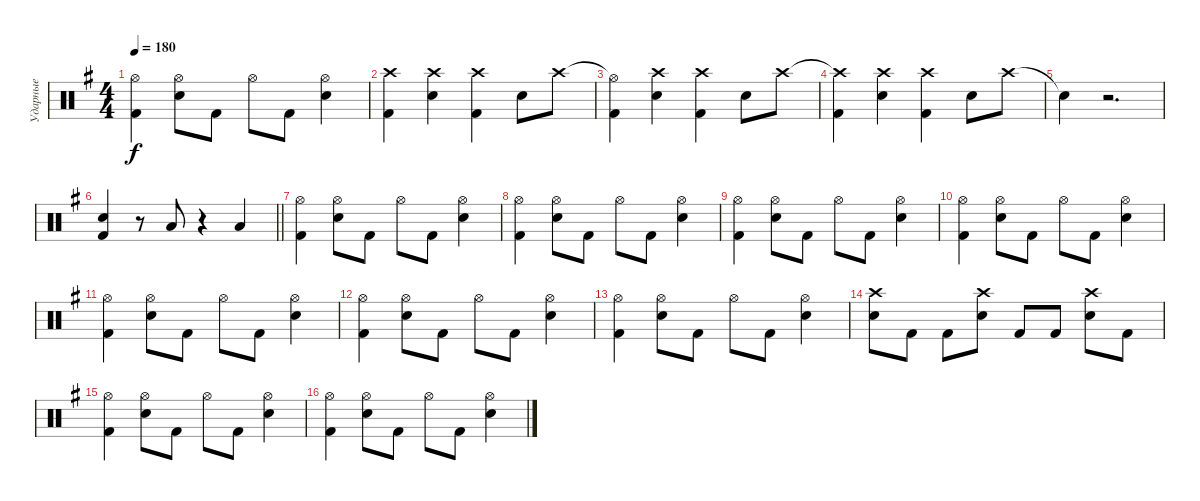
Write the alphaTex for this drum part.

\track ("Ударные" "Ударные") {instrument percussion}
\staff {score}
\articulation defaults
\ts (4 4)
\tempo 180
\clef neutral
\ks g
("Hi-Hat (open)" "Kick (hit) 2").4{dy f} ("Hi-Hat (open)" "Snare (hit) 2").8 "Kick (hit) 2".8 "Hi-Hat (open)".8 "Kick (hit) 2".8 ("Hi-Hat (open)" "Snare (hit) 2").4 |
("Crash high (hit)" "Kick (hit) 2").4 ("Crash high (hit)" "Snare (hit) 2").4 ("Crash high (hit)" "Kick (hit) 2").4 "Snare (hit) 2".8 "Crash high (hit)".8 |
("Hi-Hat (open)"{t} "Kick (hit) 2").4 ("Crash high (hit)" "Snare (hit) 2").4 ("Crash high (hit)" "Kick (hit) 2").4 "Snare (hit) 2".8 "Crash high (hit)".8 |
("Crash high (hit)"{t} "Kick (hit) 2").4 ("Crash high (hit)" "Snare (hit) 2").4 ("Crash high (hit)" "Kick (hit) 2").4 "Snare (hit) 2".8 "Crash high (hit)".8 |
"Snare (hit)"{t}.4 r.2{d} |
\barLineRight lightlight
("Snare (hit) 2" "Kick (hit) 2").4 r.8 "Low Tom (hit)".8 r.4 "Low Tom (hit)".4 |
("Hi-Hat (open)" "Kick (hit) 2").4 ("Hi-Hat (open)" "Snare (hit) 2").8 "Kick (hit) 2".8 "Hi-Hat (open)".8 "Kick (hit) 2".8 ("Hi-Hat (open)" "Snare (hit) 2").4 |
("Hi-Hat (open)" "Kick (hit) 2").4 ("Hi-Hat (open)" "Snare (hit) 2").8 "Kick (hit) 2".8 "Hi-Hat (open)".8 "Kick (hit) 2".8 ("Hi-Hat (open)" "Snare (hit) 2").4 |
("Hi-Hat (open)" "Kick (hit) 2").4 ("Hi-Hat (open)" "Snare (hit) 2").8 "Kick (hit) 2".8 "Hi-Hat (open)".8 "Kick (hit) 2".8 ("Hi-Hat (open)" "Snare (hit) 2").4 |
("Hi-Hat (open)" "Kick (hit) 2").4 ("Hi-Hat (open)" "Snare (hit) 2").8 "Kick (hit) 2".8 "Hi-Hat (open)".8 "Kick (hit) 2".8 ("Hi-Hat (open)" "Snare (hit) 2").4 |
("Hi-Hat (open)" "Kick (hit) 2").4 ("Hi-Hat (open)" "Snare (hit) 2").8 "Kick (hit) 2".8 "Hi-Hat (open)".8 "Kick (hit) 2".8 ("Hi-Hat (open)" "Snare (hit) 2").4 |
("Hi-Hat (open)" "Kick (hit) 2").4 ("Hi-Hat (open)" "Snare (hit) 2").8 "Kick (hit) 2".8 "Hi-Hat (open)".8 "Kick (hit) 2".8 ("Hi-Hat (open)" "Snare (hit) 2").4 |
("Hi-Hat (open)" "Kick (hit) 2").4 ("Hi-Hat (open)" "Snare (hit) 2").8 "Kick (hit) 2".8 "Hi-Hat (open)".8 "Kick (hit) 2".8 ("Hi-Hat (open)" "Snare (hit) 2").4 |
("Crash high (hit)" "Snare (hit) 2").8 "Kick (hit) 2".8 "Kick (hit) 2".8 ("Crash high (hit)" "Snare (hit) 2").8 "Kick (hit) 2".8 "Kick (hit) 2".8 ("Crash high (hit)" "Snare (hit) 2").8 "Kick (hit) 2".8 |
("Hi-Hat (open)" "Kick (hit) 2").4 ("Hi-Hat (open)" "Snare (hit) 2").8 "Kick (hit) 2".8 "Hi-Hat (open)".8 "Kick (hit) 2".8 ("Hi-Hat (open)" "Snare (hit) 2").4 |
("Hi-Hat (open)" "Kick (hit) 2").4 ("Hi-Hat (open)" "Snare (hit) 2").8 "Kick (hit) 2".8 "Hi-Hat (open)".8 "Kick (hit) 2".8 ("Hi-Hat (open)" "Snare (hit) 2").4
